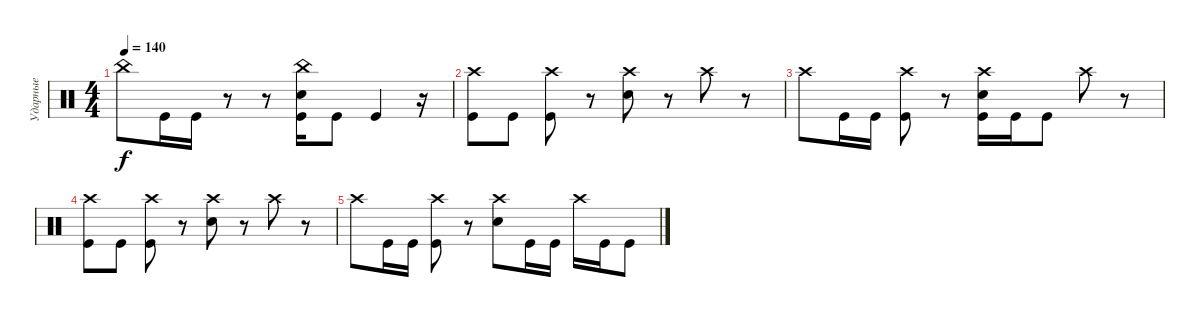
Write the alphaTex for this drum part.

\track ("Ударные" "Ударные") {instrument percussion}
\staff {score}
\articulation defaults
\ts (4 4)
\tempo 140
\clef neutral
\ks c "China (hit)".8{dy f} "Kick (hit)".16 "Kick (hit)".16
r.8 r.8 ("Kick (hit)" "China (hit)" "Snare (hit) 2").16 "Kick (hit)".8 "Kick (hit)".4 r.16 |
("Kick (hit)" "Crash high (hit)").8 "Kick (hit)".8 ("Kick (hit)" "Crash high (hit)").8 r.8 ("Crash high (hit)" "Snare (hit) 2").8 r.8 "Crash high (hit)".8 r.8 |
"Crash high (hit)".8 "Kick (hit)".16 "Kick (hit)".16 ("Kick (hit)" "Crash high (hit)").8 r.8 ("Kick (hit)" "Crash high (hit)" "Snare (hit) 2").16 "Kick (hit)".16 "Kick (hit)".8 "Crash high (hit)".8 r.8 |
("Kick (hit)" "Crash high (hit)").8 "Kick (hit)".8 ("Kick (hit)" "Crash high (hit)").8 r.8 ("Crash high (hit)" "Snare (hit) 2").8 r.8 "Crash high (hit)".8 r.8 |
"Crash high (hit)".8 "Kick (hit)".16 "Kick (hit)".16 ("Kick (hit)" "Crash high (hit)").8 r.8 ("Snare (hit) 2" "Crash high (hit)").8 "Kick (hit)".16 "Kick (hit)".16 "Crash high (hit)".16 "Kick (hit)".16 "Kick (hit)".8
